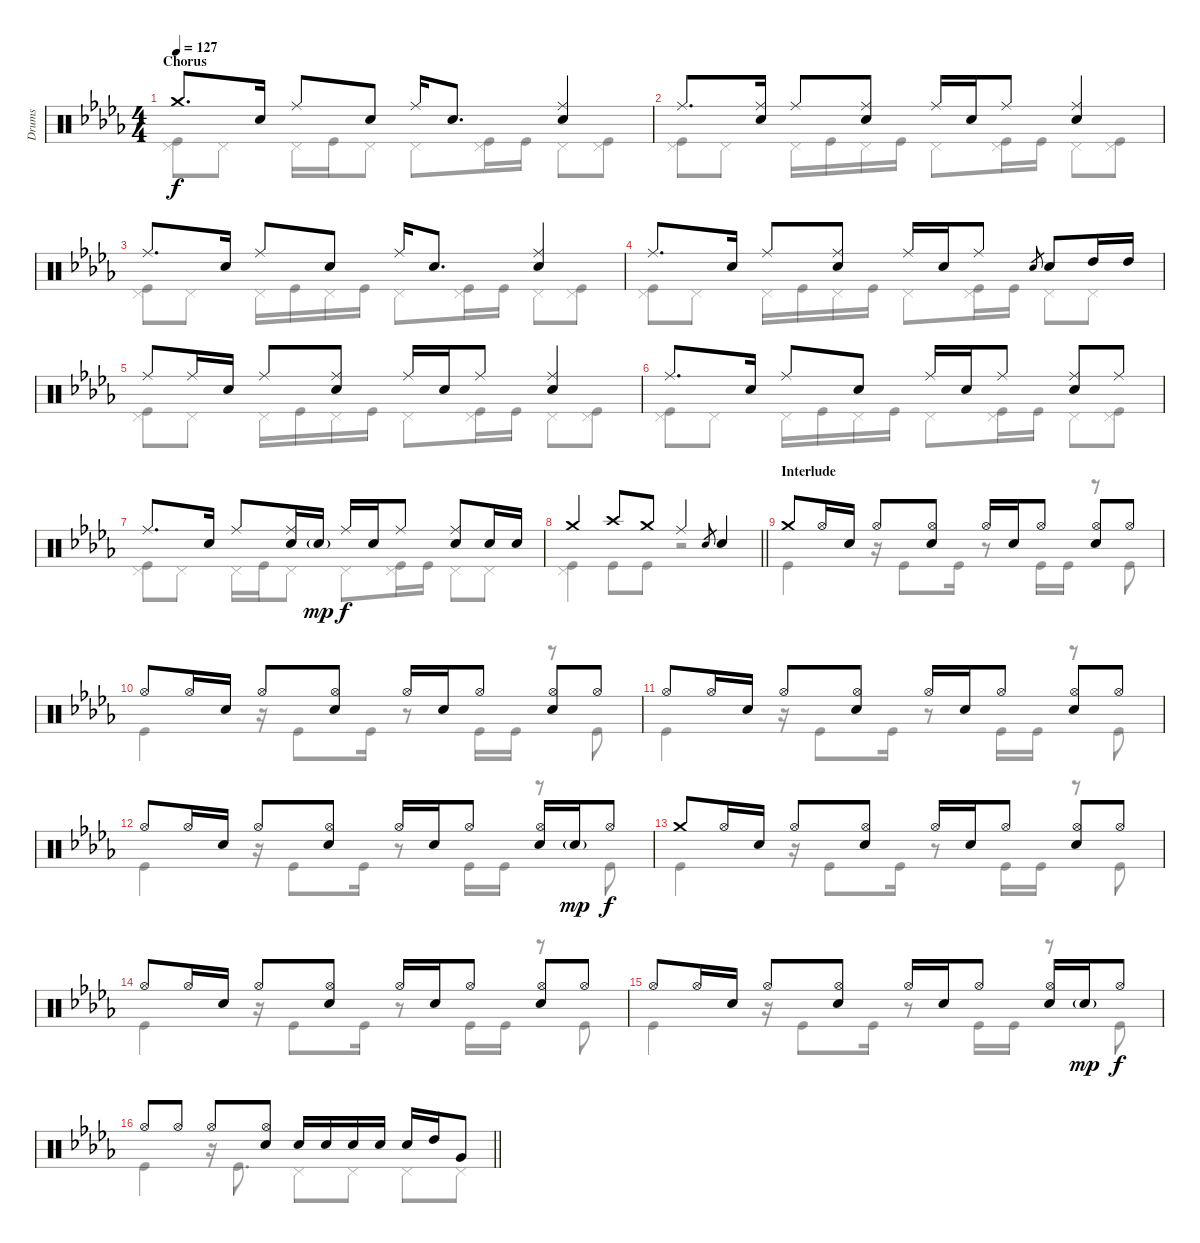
\track ("Drums" "Drums") {instrument percussion}
\staff {score}
\articulation defaults
\voice
\ts (4 4)
\section ("" "Chorus")
\tempo 127
\clef neutral
\ks bbminor "Crash medium (hit)".8{d dy f} "Electric Snare (hit)".16 "Ride (middle)".8 "Electric Snare (hit)".8 "Ride (middle)".16 "Electric Snare (hit)".8{d}
("Ride (middle)" "Electric Snare (hit)").4 |
"Ride (middle)".8{d} ("Ride (middle)" "Electric Snare (hit)").16 "Ride (middle)".8 ("Ride (middle)" "Electric Snare (hit)").8 "Ride (middle)".16 "Electric Snare (hit)".16 "Ride (middle)".8 ("Ride (middle)" "Electric Snare (hit)").4 |
"Ride (middle)".8{d} "Electric Snare (hit)".16 "Ride (middle)".8 "Electric Snare (hit)".8 "Ride (middle)".16 "Electric Snare (hit)".8{d} ("Ride (middle)" "Electric Snare (hit)").4 |
"Ride (middle)".8{d} "Electric Snare (hit)".16 "Ride (middle)".8 ("Ride (middle)" "Electric Snare (hit)").8 "Ride (middle)".16 "Electric Snare (hit)".16 "Ride (middle)".8 "Electric Snare (hit)".8{gr} "Electric Snare (hit)".8 "High Tom (hit)".16 "High Tom (hit)".16 |
"Ride (middle)".8 "Ride (middle)".16 "Electric Snare (hit)".16 "Ride (middle)".8 ("Ride (middle)" "Electric Snare (hit)").8 "Ride (middle)".16 "Electric Snare (hit)".16 "Ride (middle)".8 ("Ride (middle)" "Electric Snare (hit)").4 |
"Ride (middle)".8{d} "Electric Snare (hit)".16 "Ride (middle)".8 "Electric Snare (hit)".8 "Ride (middle)".16 "Electric Snare (hit)".16 "Ride (middle)".8 ("Ride (middle)" "Electric Snare (hit)").8 "Ride (middle)".8 |
"Ride (middle)".8{d} "Electric Snare (hit)".16 "Ride (middle)".8 ("Ride (middle)" "Electric Snare (hit)").16 "Electric Snare (hit)"{g}.16{dy mp} "Ride (middle)".16{dy f} "Electric Snare (hit)".16 "Ride (middle)".8 ("Ride (middle)" "Electric Snare (hit)").8 "Electric Snare (hit)".16 "Electric Snare (hit)".16 |
\barLineRight lightlight "Crash medium (hit)".4 "Crash high (hit)".8 "Crash medium (hit)".8 "Ride (middle)".4 "Electric Snare (hit)".8{gr} "Electric Snare (hit)".4
|
\section ("" "Interlude")
"Crash medium (hit)".8 "Hi-Hat (open)".16 "Electric Snare (hit)".16 "Hi-Hat (open)".8 ("Hi-Hat (open)" "Electric Snare (hit)").8 "Hi-Hat (open)".16 "Electric Snare (hit)".16 "Hi-Hat (open)".8 ("Hi-Hat (open)" "Electric Snare (hit)").8 "Hi-Hat (open)".8 |
"Hi-Hat (open)".8 "Hi-Hat (open)".16 "Electric Snare (hit)".16 "Hi-Hat (open)".8 ("Hi-Hat (open)" "Electric Snare (hit)").8 "Hi-Hat (open)".16 "Electric Snare (hit)".16 "Hi-Hat (open)".8 ("Hi-Hat (open)" "Electric Snare (hit)").8 "Hi-Hat (open)".8 |
"Hi-Hat (open)".8 "Hi-Hat (open)".16 "Electric Snare (hit)".16 "Hi-Hat (open)".8 ("Hi-Hat (open)" "Electric Snare (hit)").8 "Hi-Hat (open)".16 "Electric Snare (hit)".16 "Hi-Hat (open)".8 ("Hi-Hat (open)" "Electric Snare (hit)").8 "Hi-Hat (open)".8 |
"Hi-Hat (open)".8 "Hi-Hat (open)".16 "Electric Snare (hit)".16 "Hi-Hat (open)".8 ("Hi-Hat (open)" "Electric Snare (hit)").8 "Hi-Hat (open)".16 "Electric Snare (hit)".16 "Hi-Hat (open)".8 ("Hi-Hat (open)" "Electric Snare (hit)").16 "Electric Snare (hit)"{g}.16{dy mp} "Hi-Hat (open)".8{dy f} |
"Crash medium (hit)".8 "Hi-Hat (open)".16 "Electric Snare (hit)".16 "Hi-Hat (open)".8 ("Hi-Hat (open)" "Electric Snare (hit)").8 "Hi-Hat (open)".16 "Electric Snare (hit)".16 "Hi-Hat (open)".8 ("Hi-Hat (open)" "Electric Snare (hit)").8 "Hi-Hat (open)".8 |
"Hi-Hat (open)".8 "Hi-Hat (open)".16 "Electric Snare (hit)".16 "Hi-Hat (open)".8 ("Hi-Hat (open)" "Electric Snare (hit)").8 "Hi-Hat (open)".16 "Electric Snare (hit)".16 "Hi-Hat (open)".8 ("Hi-Hat (open)" "Electric Snare (hit)").8 "Hi-Hat (open)".8 |
"Hi-Hat (open)".8 "Hi-Hat (open)".16 "Electric Snare (hit)".16 "Hi-Hat (open)".8 ("Hi-Hat (open)" "Electric Snare (hit)").8 "Hi-Hat (open)".16 "Electric Snare (hit)".16 "Hi-Hat (open)".8 ("Hi-Hat (open)" "Electric Snare (hit)").16 "Electric Snare (hit)"{g}.16{dy mp} "Hi-Hat (open)".8{dy f} |
\barLineRight lightlight "Hi-Hat (open)".8 "Hi-Hat (open)".8 "Hi-Hat (open)".8
("Hi-Hat (open)" "Electric Snare (hit)").8 "Electric Snare (hit)".16 "Electric Snare (hit)".16 "Electric Snare (hit)".16 "Electric Snare (hit)".16 "Electric Snare (hit)".16 "High Tom (hit)".16 "Very Low Tom (hit)".8
\voice
\clef neutral
\ottava regular
\simile none
\ks bbminor
("Pedal Hi-Hat (hit)" "Kick (hit)").8{dy f} "Pedal Hi-Hat (hit)".8 "Pedal Hi-Hat (hit)".16 "Kick (hit)".16 "Pedal Hi-Hat (hit)".8 "Pedal Hi-Hat (hit)".8 ("Pedal Hi-Hat (hit)" "Kick (hit)").16 "Kick (hit)".16 "Pedal Hi-Hat (hit)".8 ("Pedal Hi-Hat (hit)" "Kick (hit)").8 |
("Pedal Hi-Hat (hit)" "Kick (hit)").8 "Pedal Hi-Hat (hit)".8 "Pedal Hi-Hat (hit)".16 "Kick (hit)".16 "Pedal Hi-Hat (hit)".16 "Kick (hit)".16 "Pedal Hi-Hat (hit)".8 ("Pedal Hi-Hat (hit)" "Kick (hit)").16 "Kick (hit)".16 "Pedal Hi-Hat (hit)".8 ("Pedal Hi-Hat (hit)" "Kick (hit)").8 |
("Pedal Hi-Hat (hit)" "Kick (hit)").8 "Pedal Hi-Hat (hit)".8 "Pedal Hi-Hat (hit)".16 "Kick (hit)".16 "Pedal Hi-Hat (hit)".16 "Kick (hit)".16 "Pedal Hi-Hat (hit)".8 ("Pedal Hi-Hat (hit)" "Kick (hit)").16 "Kick (hit)".16 "Pedal Hi-Hat (hit)".8 ("Pedal Hi-Hat (hit)" "Kick (hit)").8 |
("Pedal Hi-Hat (hit)" "Kick (hit)").8 "Pedal Hi-Hat (hit)".8 "Pedal Hi-Hat (hit)".16 "Kick (hit)".16 "Pedal Hi-Hat (hit)".16 "Kick (hit)".16 "Pedal Hi-Hat (hit)".8 ("Pedal Hi-Hat (hit)" "Kick (hit)").16 "Kick (hit)".16 "Pedal Hi-Hat (hit)".8 "Pedal Hi-Hat (hit)".8 |
("Pedal Hi-Hat (hit)" "Kick (hit)").8 "Pedal Hi-Hat (hit)".8 "Pedal Hi-Hat (hit)".16 "Kick (hit)".16 "Pedal Hi-Hat (hit)".16 "Kick (hit)".16 "Pedal Hi-Hat (hit)".8 ("Pedal Hi-Hat (hit)" "Kick (hit)").16 "Kick (hit)".16 "Pedal Hi-Hat (hit)".8 ("Pedal Hi-Hat (hit)" "Kick (hit)").8 |
("Pedal Hi-Hat (hit)" "Kick (hit)").8 "Pedal Hi-Hat (hit)".8 "Pedal Hi-Hat (hit)".16 "Kick (hit)".16 "Pedal Hi-Hat (hit)".16 "Kick (hit)".16 "Pedal Hi-Hat (hit)".8 ("Pedal Hi-Hat (hit)" "Kick (hit)").16 "Kick (hit)".16 "Pedal Hi-Hat (hit)".8 ("Pedal Hi-Hat (hit)" "Kick (hit)").8 |
("Pedal Hi-Hat (hit)" "Kick (hit)").8 "Pedal Hi-Hat (hit)".8 "Pedal Hi-Hat (hit)".16 "Kick (hit)".16 "Pedal Hi-Hat (hit)".8 "Pedal Hi-Hat (hit)".8 ("Pedal Hi-Hat (hit)" "Kick (hit)").16 "Kick (hit)".16 "Pedal Hi-Hat (hit)".8 "Pedal Hi-Hat (hit)".8 |
\barLineRight lightlight
("Pedal Hi-Hat (hit)" "Kick (hit)").4 "Kick (hit)".8 "Kick (hit)".8 r.2 |
"Kick (hit)".4 r.16 "Kick (hit)".8 "Kick (hit)".16 r.8 "Kick (hit)".16 "Kick (hit)".16 r.8 "Kick (hit)".8 |
"Kick (hit)".4 r.16 "Kick (hit)".8 "Kick (hit)".16 r.8 "Kick (hit)".16 "Kick (hit)".16 r.8 "Kick (hit)".8 |
"Kick (hit)".4 r.16 "Kick (hit)".8 "Kick (hit)".16 r.8 "Kick (hit)".16 "Kick (hit)".16 r.8 "Kick (hit)".8 |
"Kick (hit)".4 r.16 "Kick (hit)".8 "Kick (hit)".16 r.8 "Kick (hit)".16 "Kick (hit)".16 r.8 "Kick (hit)".8 |
"Kick (hit)".4 r.16 "Kick (hit)".8 "Kick (hit)".16 r.8 "Kick (hit)".16 "Kick (hit)".16 r.8 "Kick (hit)".8 |
"Kick (hit)".4 r.16 "Kick (hit)".8 "Kick (hit)".16 r.8 "Kick (hit)".16 "Kick (hit)".16 r.8 "Kick (hit)".8 |
"Kick (hit)".4 r.16 "Kick (hit)".8 "Kick (hit)".16 r.8 "Kick (hit)".16 "Kick (hit)".16 r.8 "Kick (hit)".8 |
\barLineRight lightlight "Kick (hit)".4
r.16 "Kick (hit)".8{d} "Pedal Hi-Hat (hit)".8 "Pedal Hi-Hat (hit)".8 "Pedal Hi-Hat (hit)".8 "Pedal Hi-Hat (hit)".8
